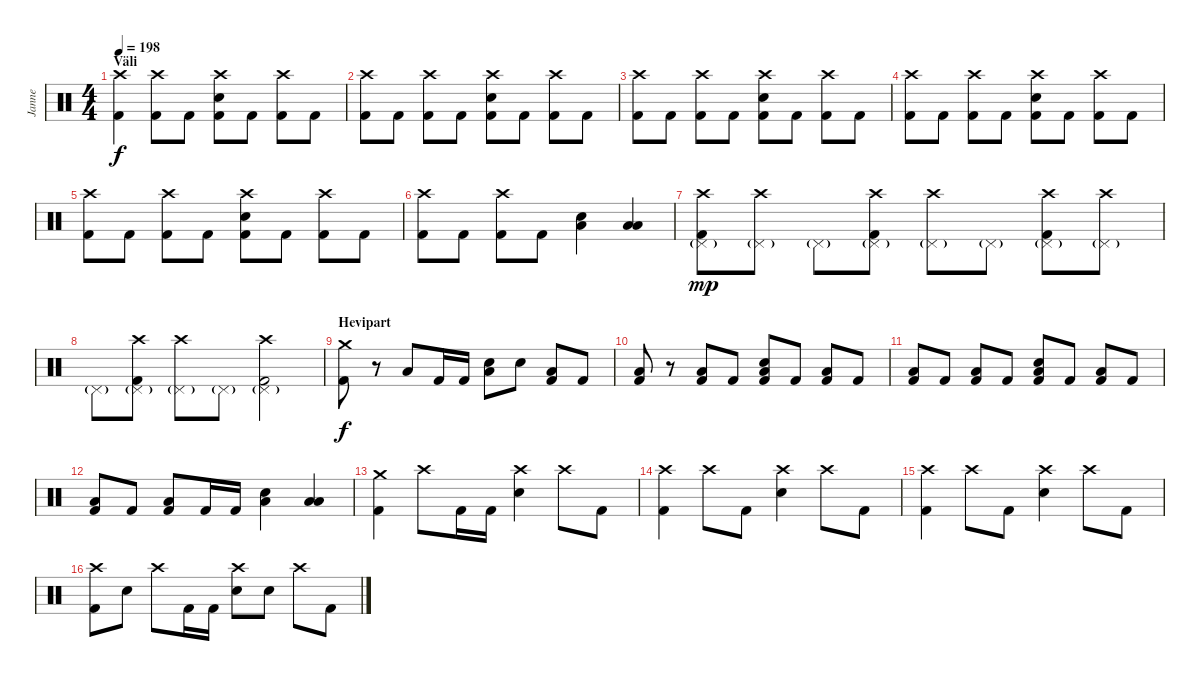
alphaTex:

\track ("Janne" "Janne") {instrument percussion}
\staff {score}
\articulation defaults
\ts (4 4)
\section ("" "Väli")
\tempo 198
\clef neutral
\ks c
("Crash high (hit)" "Kick (hit) 2").4{dy f} ("Crash high (hit)" "Kick (hit) 2").8 "Kick (hit) 2".8 ("Crash high (hit)" "Electric Snare (hit)" "Kick (hit) 2").8 "Kick (hit) 2".8 ("Crash high (hit)" "Kick (hit) 2").8 "Kick (hit) 2".8 |
("Crash high (hit)" "Kick (hit) 2").8 "Kick (hit) 2".8 ("Crash high (hit)" "Kick (hit) 2").8 "Kick (hit) 2".8 ("Crash high (hit)" "Electric Snare (hit)" "Kick (hit) 2").8 "Kick (hit) 2".8 ("Crash high (hit)" "Kick (hit) 2").8 "Kick (hit) 2".8 |
("Crash high (hit)" "Kick (hit) 2").8 "Kick (hit) 2".8 ("Crash high (hit)" "Kick (hit) 2").8 "Kick (hit) 2".8 ("Crash high (hit)" "Electric Snare (hit)" "Kick (hit) 2").8 "Kick (hit) 2".8 ("Crash high (hit)" "Kick (hit) 2").8 "Kick (hit) 2".8 |
("Crash high (hit)" "Kick (hit) 2").8 "Kick (hit) 2".8 ("Crash high (hit)" "Kick (hit) 2").8 "Kick (hit) 2".8 ("Crash high (hit)" "Electric Snare (hit)" "Kick (hit) 2").8 "Kick (hit) 2".8 ("Crash high (hit)" "Kick (hit) 2").8 "Kick (hit) 2".8 |
("Crash high (hit)" "Kick (hit) 2").8 "Kick (hit) 2".8 ("Crash high (hit)" "Kick (hit) 2").8 "Kick (hit) 2".8 ("Crash high (hit)" "Electric Snare (hit)" "Kick (hit) 2").8 "Kick (hit) 2".8 ("Crash high (hit)" "Kick (hit) 2").8 "Kick (hit) 2".8 |
("Crash high (hit)" "Kick (hit) 2").8 "Kick (hit) 2".8 ("Crash high (hit)" "Kick (hit) 2").8 "Kick (hit) 2".8 ("Electric Snare (hit)" "Low Floor Tom (hit)").4 ("Low Tom (hit)" "Low Floor Tom (hit)").4 |
("Crash high (hit)" "Pedal Hi-Hat (hit)"{g} "Kick (hit) 2").8{dy mp} ("Crash high (hit)" "Pedal Hi-Hat (hit)"{g}).8 "Pedal Hi-Hat (hit)"{g}.8 ("Crash high (hit)" "Pedal Hi-Hat (hit)"{g} "Kick (hit) 2").8 ("Crash high (hit)" "Pedal Hi-Hat (hit)"{g}).8 "Pedal Hi-Hat (hit)"{g}.8 ("Crash high (hit)" "Pedal Hi-Hat (hit)"{g} "Kick (hit) 2").8 ("Crash high (hit)" "Pedal Hi-Hat (hit)"{g}).8 |
"Pedal Hi-Hat (hit)"{g}.8 ("Crash high (hit)" "Pedal Hi-Hat (hit)"{g} "Kick (hit) 2").8 ("Crash high (hit)" "Pedal Hi-Hat (hit)"{g}).8 "Pedal Hi-Hat (hit)"{g}.8 ("Crash high (hit)" "Pedal Hi-Hat (hit)"{g} "Kick (hit) 2").2 |
\section ("" "Hevipart")
("Crash medium (hit)" "Kick (hit) 2").8{dy f} r.8 "Low Floor Tom (hit)".8 "Kick (hit) 2".16 "Kick (hit) 2".16 ("Low Floor Tom (hit)" "Electric Snare (hit)").8 "Electric Snare (hit)".8 ("Low Floor Tom (hit)" "Kick (hit) 2").8 "Kick (hit) 2".8 |
("Low Floor Tom (hit)" "Kick (hit) 2").8 r.8 ("Low Floor Tom (hit)" "Kick (hit) 2").8 "Kick (hit) 2".8 ("Low Floor Tom (hit)" "Electric Snare (hit)" "Kick (hit) 2").8 "Kick (hit) 2".8 ("Low Floor Tom (hit)" "Kick (hit) 2").8 "Kick (hit) 2".8 |
("Low Floor Tom (hit)" "Kick (hit) 2").8 "Kick (hit) 2".8 ("Low Floor Tom (hit)" "Kick (hit) 2").8 "Kick (hit) 2".8 ("Low Floor Tom (hit)" "Electric Snare (hit)" "Kick (hit) 2").8 "Kick (hit) 2".8 ("Low Floor Tom (hit)" "Kick (hit) 2").8 "Kick (hit) 2".8 |
("Low Floor Tom (hit)" "Kick (hit) 2").8 "Kick (hit) 2".8 ("Low Floor Tom (hit)" "Kick (hit) 2").8 "Kick (hit) 2".16 "Kick (hit) 2".16 ("Low Floor Tom (hit)" "Electric Snare (hit)").4 ("Low Floor Tom (hit)" "Low Tom (hit)").4 |
("Crash medium (hit)" "Kick (hit) 2").4 "Crash high (hit)".8 "Kick (hit) 2".16 "Kick (hit) 2".16 ("Crash high (hit)" "Electric Snare (hit)").4 "Crash high (hit)".8 "Kick (hit) 2".8 |
("Crash high (hit)" "Kick (hit) 2").4 "Crash high (hit)".8 "Kick (hit) 2".8 ("Crash high (hit)" "Electric Snare (hit)").4 "Crash high (hit)".8 "Kick (hit) 2".8 |
("Crash high (hit)" "Kick (hit) 2").4 "Crash high (hit)".8 "Kick (hit) 2".8 ("Crash high (hit)" "Electric Snare (hit)").4 "Crash high (hit)".8 "Kick (hit) 2".8 |
("Crash high (hit)" "Kick (hit) 2").8 "Electric Snare (hit)".8 "Crash high (hit)".8 "Kick (hit) 2".16 "Kick (hit) 2".16 ("Crash high (hit)" "Electric Snare (hit)").8 "Electric Snare (hit)".8 "Crash high (hit)".8 "Kick (hit) 2".8
